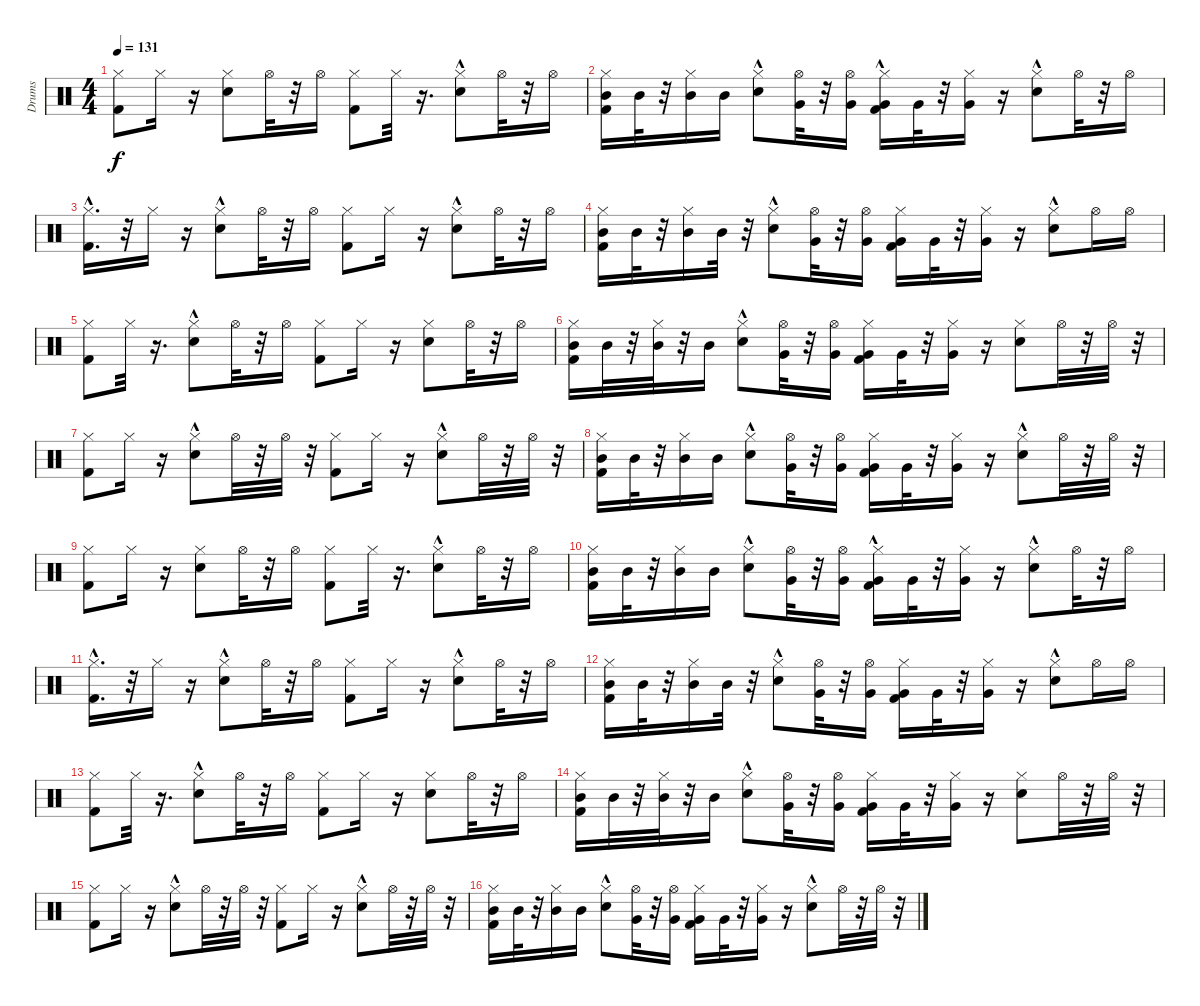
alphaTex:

\track ("Drums" "Drums") {instrument percussion}
\staff {score}
\articulation defaults
\ts (4 4)
\tempo 131
\clef neutral
\ks c
("Kick (hit) 2" "Hi-Hat (closed)").8{dy f} "Hi-Hat (closed)".16 r.16 ("Snare (hit) 2" "Hi-Hat (closed)").8 "Hi-Hat (open)".32 r.32 "Hi-Hat (open)".16 ("Kick (hit) 2" "Hi-Hat (closed)").8 "Hi-Hat (closed)".32 r.16{d} ("Snare (hit) 2" "Hi-Hat (closed)"{hac}).8 "Hi-Hat (open)".32 r.32 "Hi-Hat (open)".16 |
("Kick (hit) 2" "Hi-Hat (closed)" "Mid Tom (hit)").16 "Mid Tom (hit)".32 r.32 ("Hi-Hat (closed)" "Mid Tom (hit)").16 "Mid Tom (hit)".16 ("Snare (hit) 2" "Hi-Hat (closed)"{hac}).8 ("Hi-Hat (open)" "Very Low Tom (hit)").32 r.32 ("Hi-Hat (open)" "Very Low Tom (hit)").16 ("Kick (hit) 2"{hac} "Hi-Hat (closed)" "Very Low Tom (hit)").16 "Very Low Tom (hit)".32 r.32 ("Hi-Hat (closed)" "Very Low Tom (hit)").16 r.16 ("Snare (hit) 2" "Hi-Hat (closed)"{hac}).8 "Hi-Hat (open)".32 r.32 "Hi-Hat (open)".16 |
("Kick (hit) 2"{hac} "Hi-Hat (closed)").16{d} r.32 "Hi-Hat (closed)".16 r.16 ("Snare (hit) 2" "Hi-Hat (closed)"{hac}).8 "Hi-Hat (open)".32 r.32 "Hi-Hat (open)".16 ("Kick (hit) 2" "Hi-Hat (closed)").8 "Hi-Hat (closed)".16 r.16 ("Snare (hit) 2" "Hi-Hat (closed)"{hac}).8 "Hi-Hat (open)".32 r.32 "Hi-Hat (open)".16 |
("Kick (hit) 2" "Hi-Hat (closed)" "Mid Tom (hit)").16 "Mid Tom (hit)".32 r.32 ("Hi-Hat (closed)" "Mid Tom (hit)").16 "Mid Tom (hit)".32 r.32 ("Snare (hit) 2" "Hi-Hat (closed)"{hac}).8 ("Hi-Hat (open)" "Very Low Tom (hit)").32 r.32 ("Hi-Hat (open)" "Very Low Tom (hit)").16 ("Kick (hit) 2" "Hi-Hat (closed)" "Very Low Tom (hit)").16 "Very Low Tom (hit)".32 r.32 ("Hi-Hat (closed)" "Very Low Tom (hit)").16 r.16 ("Snare (hit) 2" "Hi-Hat (closed)"{hac}).8 "Hi-Hat (open)".16 "Hi-Hat (open)".16 |
("Kick (hit) 2" "Hi-Hat (closed)").8 "Hi-Hat (closed)".32 r.16{d} ("Snare (hit) 2" "Hi-Hat (closed)"{hac}).8 "Hi-Hat (open)".32 r.32 "Hi-Hat (open)".16 ("Kick (hit) 2" "Hi-Hat (closed)").8 "Hi-Hat (closed)".16 r.16 ("Snare (hit) 2" "Hi-Hat (closed)").8 "Hi-Hat (open)".32 r.32 "Hi-Hat (open)".16 |
("Kick (hit) 2" "Hi-Hat (closed)" "Mid Tom (hit)").16 "Mid Tom (hit)".32 r.32 ("Hi-Hat (closed)" "Mid Tom (hit)").32 r.32 "Mid Tom (hit)".16 ("Snare (hit) 2" "Hi-Hat (closed)"{hac}).8 ("Hi-Hat (open)" "Very Low Tom (hit)").32 r.32 ("Hi-Hat (open)" "Very Low Tom (hit)").16 ("Kick (hit) 2" "Hi-Hat (closed)" "Very Low Tom (hit)").16 "Very Low Tom (hit)".32 r.32 ("Hi-Hat (closed)" "Very Low Tom (hit)").16 r.16 ("Snare (hit) 2" "Hi-Hat (closed)").8 "Hi-Hat (open)".32 r.32 "Hi-Hat (open)".32 r.32 |
("Kick (hit) 2" "Hi-Hat (closed)").8 "Hi-Hat (closed)".16 r.16 ("Snare (hit) 2" "Hi-Hat (closed)"{hac}).8 "Hi-Hat (open)".32 r.32 "Hi-Hat (open)".32 r.32 ("Kick (hit) 2" "Hi-Hat (closed)").8 "Hi-Hat (closed)".16 r.16 ("Snare (hit) 2" "Hi-Hat (closed)"{hac}).8 "Hi-Hat (open)".32 r.32 "Hi-Hat (open)".32 r.32 |
("Kick (hit) 2" "Hi-Hat (closed)" "Mid Tom (hit)").16 "Mid Tom (hit)".32 r.32 ("Hi-Hat (closed)" "Mid Tom (hit)").16 "Mid Tom (hit)".16 ("Snare (hit) 2" "Hi-Hat (closed)"{hac}).8 ("Hi-Hat (open)" "Very Low Tom (hit)").32 r.32 ("Hi-Hat (open)" "Very Low Tom (hit)").16 ("Kick (hit) 2" "Hi-Hat (closed)" "Very Low Tom (hit)").16 "Very Low Tom (hit)".32 r.32 ("Hi-Hat (closed)" "Very Low Tom (hit)").16 r.16 ("Snare (hit) 2" "Hi-Hat (closed)"{hac}).8 "Hi-Hat (open)".32 r.32 "Hi-Hat (open)".32 r.32 |
("Kick (hit) 2" "Hi-Hat (closed)").8 "Hi-Hat (closed)".16 r.16 ("Snare (hit) 2" "Hi-Hat (closed)").8 "Hi-Hat (open)".32 r.32 "Hi-Hat (open)".16 ("Kick (hit) 2" "Hi-Hat (closed)").8 "Hi-Hat (closed)".32 r.16{d} ("Snare (hit) 2" "Hi-Hat (closed)"{hac}).8 "Hi-Hat (open)".32 r.32 "Hi-Hat (open)".16 |
("Kick (hit) 2" "Hi-Hat (closed)" "Mid Tom (hit)").16 "Mid Tom (hit)".32 r.32 ("Hi-Hat (closed)" "Mid Tom (hit)").16 "Mid Tom (hit)".16 ("Snare (hit) 2" "Hi-Hat (closed)"{hac}).8 ("Hi-Hat (open)" "Very Low Tom (hit)").32 r.32 ("Hi-Hat (open)" "Very Low Tom (hit)").16 ("Kick (hit) 2"{hac} "Hi-Hat (closed)" "Very Low Tom (hit)").16 "Very Low Tom (hit)".32 r.32 ("Hi-Hat (closed)" "Very Low Tom (hit)").16 r.16 ("Snare (hit) 2" "Hi-Hat (closed)"{hac}).8 "Hi-Hat (open)".32 r.32 "Hi-Hat (open)".16 |
("Kick (hit) 2"{hac} "Hi-Hat (closed)").16{d} r.32 "Hi-Hat (closed)".16 r.16 ("Snare (hit) 2" "Hi-Hat (closed)"{hac}).8 "Hi-Hat (open)".32 r.32 "Hi-Hat (open)".16 ("Kick (hit) 2" "Hi-Hat (closed)").8 "Hi-Hat (closed)".16 r.16 ("Snare (hit) 2" "Hi-Hat (closed)"{hac}).8 "Hi-Hat (open)".32 r.32 "Hi-Hat (open)".16 |
("Kick (hit) 2" "Hi-Hat (closed)" "Mid Tom (hit)").16 "Mid Tom (hit)".32 r.32 ("Hi-Hat (closed)" "Mid Tom (hit)").16 "Mid Tom (hit)".32 r.32 ("Snare (hit) 2" "Hi-Hat (closed)"{hac}).8 ("Hi-Hat (open)" "Very Low Tom (hit)").32 r.32 ("Hi-Hat (open)" "Very Low Tom (hit)").16 ("Kick (hit) 2" "Hi-Hat (closed)" "Very Low Tom (hit)").16 "Very Low Tom (hit)".32 r.32 ("Hi-Hat (closed)" "Very Low Tom (hit)").16 r.16 ("Snare (hit) 2" "Hi-Hat (closed)"{hac}).8 "Hi-Hat (open)".16 "Hi-Hat (open)".16 |
("Kick (hit) 2" "Hi-Hat (closed)").8 "Hi-Hat (closed)".32 r.16{d} ("Snare (hit) 2" "Hi-Hat (closed)"{hac}).8 "Hi-Hat (open)".32 r.32 "Hi-Hat (open)".16 ("Kick (hit) 2" "Hi-Hat (closed)").8 "Hi-Hat (closed)".16 r.16 ("Snare (hit) 2" "Hi-Hat (closed)").8 "Hi-Hat (open)".32 r.32 "Hi-Hat (open)".16 |
("Kick (hit) 2" "Hi-Hat (closed)" "Mid Tom (hit)").16 "Mid Tom (hit)".32 r.32 ("Hi-Hat (closed)" "Mid Tom (hit)").32 r.32 "Mid Tom (hit)".16 ("Snare (hit) 2" "Hi-Hat (closed)"{hac}).8 ("Hi-Hat (open)" "Very Low Tom (hit)").32 r.32 ("Hi-Hat (open)" "Very Low Tom (hit)").16 ("Kick (hit) 2" "Hi-Hat (closed)" "Very Low Tom (hit)").16 "Very Low Tom (hit)".32 r.32 ("Hi-Hat (closed)" "Very Low Tom (hit)").16 r.16 ("Snare (hit) 2" "Hi-Hat (closed)").8 "Hi-Hat (open)".32 r.32 "Hi-Hat (open)".32 r.32 |
("Kick (hit) 2" "Hi-Hat (closed)").8 "Hi-Hat (closed)".16 r.16 ("Snare (hit) 2" "Hi-Hat (closed)"{hac}).8 "Hi-Hat (open)".32 r.32 "Hi-Hat (open)".32 r.32 ("Kick (hit) 2" "Hi-Hat (closed)").8 "Hi-Hat (closed)".16 r.16 ("Snare (hit) 2" "Hi-Hat (closed)"{hac}).8 "Hi-Hat (open)".32 r.32 "Hi-Hat (open)".32 r.32 |
("Kick (hit) 2" "Hi-Hat (closed)" "Mid Tom (hit)").16 "Mid Tom (hit)".32 r.32 ("Hi-Hat (closed)" "Mid Tom (hit)").16 "Mid Tom (hit)".16 ("Snare (hit) 2" "Hi-Hat (closed)"{hac}).8 ("Hi-Hat (open)" "Very Low Tom (hit)").32 r.32 ("Hi-Hat (open)" "Very Low Tom (hit)").16 ("Kick (hit) 2" "Hi-Hat (closed)" "Very Low Tom (hit)").16 "Very Low Tom (hit)".32 r.32 ("Hi-Hat (closed)" "Very Low Tom (hit)").16 r.16 ("Snare (hit) 2" "Hi-Hat (closed)"{hac}).8 "Hi-Hat (open)".32 r.32 "Hi-Hat (open)".32 r.32
